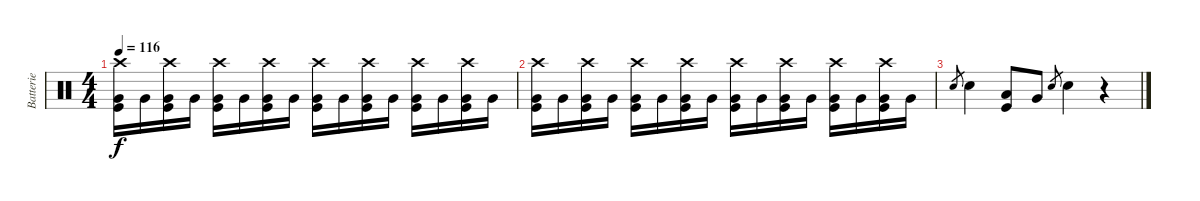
\track ("Batterie" "Batterie") {instrument percussion}
\staff {score}
\articulation defaults
\ts (4 4)
\tempo 116
\clef neutral
\ks c
("Crash high (hit)" "Very Low Tom (hit)" "Kick (hit)").16{dy f} "Very Low Tom (hit)".16 ("Crash high (hit)" "Very Low Tom (hit)" "Kick (hit)").16 "Very Low Tom (hit)".16 ("Crash high (hit)" "Very Low Tom (hit)" "Kick (hit)").16 "Very Low Tom (hit)".16 ("Crash high (hit)" "Very Low Tom (hit)" "Kick (hit)").16 "Very Low Tom (hit)".16 ("Crash high (hit)" "Very Low Tom (hit)" "Kick (hit)").16 "Very Low Tom (hit)".16 ("Crash high (hit)" "Very Low Tom (hit)" "Kick (hit)").16 "Very Low Tom (hit)".16 ("Crash high (hit)" "Very Low Tom (hit)" "Kick (hit)").16 "Very Low Tom (hit)".16 ("Crash high (hit)" "Very Low Tom (hit)" "Kick (hit)").16 "Very Low Tom (hit)".16 |
("Crash high (hit)" "Very Low Tom (hit)" "Kick (hit)").16 "Very Low Tom (hit)".16 ("Crash high (hit)" "Very Low Tom (hit)" "Kick (hit)").16 "Very Low Tom (hit)".16 ("Crash high (hit)" "Very Low Tom (hit)" "Kick (hit)").16 "Very Low Tom (hit)".16 ("Crash high (hit)" "Very Low Tom (hit)" "Kick (hit)").16 "Very Low Tom (hit)".16 ("Crash high (hit)" "Very Low Tom (hit)" "Kick (hit)").16 "Very Low Tom (hit)".16 ("Crash high (hit)" "Very Low Tom (hit)" "Kick (hit)").16 "Very Low Tom (hit)".16 ("Crash high (hit)" "Very Low Tom (hit)" "Kick (hit)").16 "Very Low Tom (hit)".16 ("Crash high (hit)" "Very Low Tom (hit)" "Kick (hit)").16 "Very Low Tom (hit)".16 |
"Snare (hit) 2".8{gr} "Snare (hit) 2".4 ("Low Tom (hit)" "Kick (hit)").8 "Very Low Tom (hit)".8 "Snare (hit) 2".8{gr} "Snare (hit) 2".4 r.4
